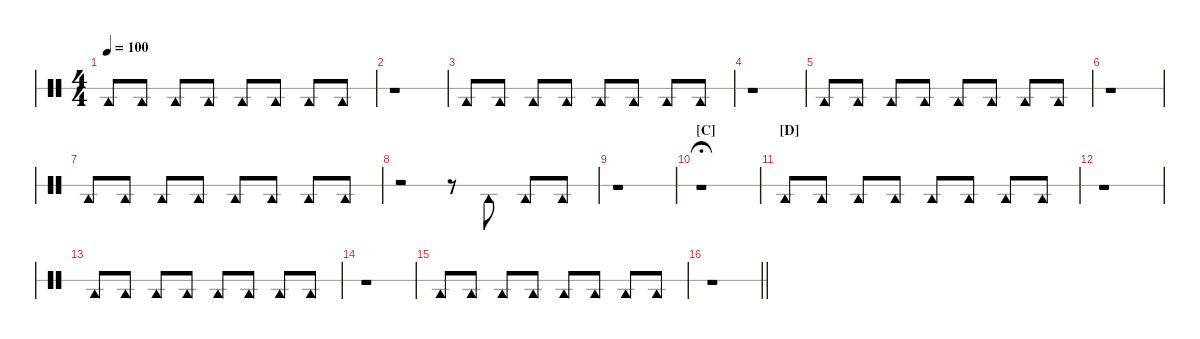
\defaultSystemsLayout 4
\hideDynamics
\bracketExtendMode nobrackets
\singleTrackTrackNamePolicy hidden
\multiTrackTrackNamePolicy hidden
\firstSystemTrackNameMode fullname
\firstSystemTrackNameOrientation horizontal
\otherSystemsTrackNameOrientation horizontal
\track ("Robert Plant" "Tamb.") {defaultSystemsLayout 4 instrument percussion}
\staff {score 1}
\articulation defaults
\ts (4 4)
\tempo 100
\clef neutral
\ks c "Tambourine (hit)".8{dy mf beam Up} "Tambourine (hit)".8{beam Up} "Tambourine (hit)".8{beam Up} "Tambourine (hit)".8{beam Up} "Tambourine (hit)".8{beam Up} "Tambourine (hit)".8{beam Up} "Tambourine (hit)".8{beam Up} "Tambourine (hit)".8{beam Up}
|
r.1{beam Down} |
"Tambourine (hit)".8{beam Up} "Tambourine (hit)".8{beam Up} "Tambourine (hit)".8{beam Up} "Tambourine (hit)".8{beam Up} "Tambourine (hit)".8{beam Up} "Tambourine (hit)".8{beam Up} "Tambourine (hit)".8{beam Up} "Tambourine (hit)".8{beam Up} |
r.1{beam Down} |
"Tambourine (hit)".8{beam Up} "Tambourine (hit)".8{beam Up} "Tambourine (hit)".8{beam Up} "Tambourine (hit)".8{beam Up} "Tambourine (hit)".8{beam Up} "Tambourine (hit)".8{beam Up} "Tambourine (hit)".8{beam Up} "Tambourine (hit)".8{beam Up} |
r.1{beam Down} |
"Tambourine (hit)".8{beam Up} "Tambourine (hit)".8{beam Up} "Tambourine (hit)".8{beam Up} "Tambourine (hit)".8{beam Up} "Tambourine (hit)".8{beam Up} "Tambourine (hit)".8{beam Up} "Tambourine (hit)".8{beam Up} "Tambourine (hit)".8{beam Up} |
r.2{beam Down} r.8{beam Down} "Tambourine (hit)".8{beam Down} "Tambourine (hit)".8{beam Up} "Tambourine (hit)".8{beam Up} |
r.1{beam Down} |
\section ("C" "")
r.1{fermata (medium 0.5) beam Down} |
\section ("D" "")
"Tambourine (hit)".8{beam Up} "Tambourine (hit)".8{beam Up} "Tambourine (hit)".8{beam Up} "Tambourine (hit)".8{beam Up} "Tambourine (hit)".8{beam Up} "Tambourine (hit)".8{beam Up} "Tambourine (hit)".8{beam Up} "Tambourine (hit)".8{beam Up} |
r.1{beam Down} |
"Tambourine (hit)".8{beam Up} "Tambourine (hit)".8{beam Up} "Tambourine (hit)".8{beam Up} "Tambourine (hit)".8{beam Up} "Tambourine (hit)".8{beam Up} "Tambourine (hit)".8{beam Up} "Tambourine (hit)".8{beam Up} "Tambourine (hit)".8{beam Up} |
r.1{beam Down} |
"Tambourine (hit)".8{beam Up} "Tambourine (hit)".8{beam Up} "Tambourine (hit)".8{beam Up} "Tambourine (hit)".8{beam Up} "Tambourine (hit)".8{beam Up} "Tambourine (hit)".8{beam Up} "Tambourine (hit)".8{beam Up} "Tambourine (hit)".8{beam Up} |
\barLineRight lightlight
r.1{beam Down}
